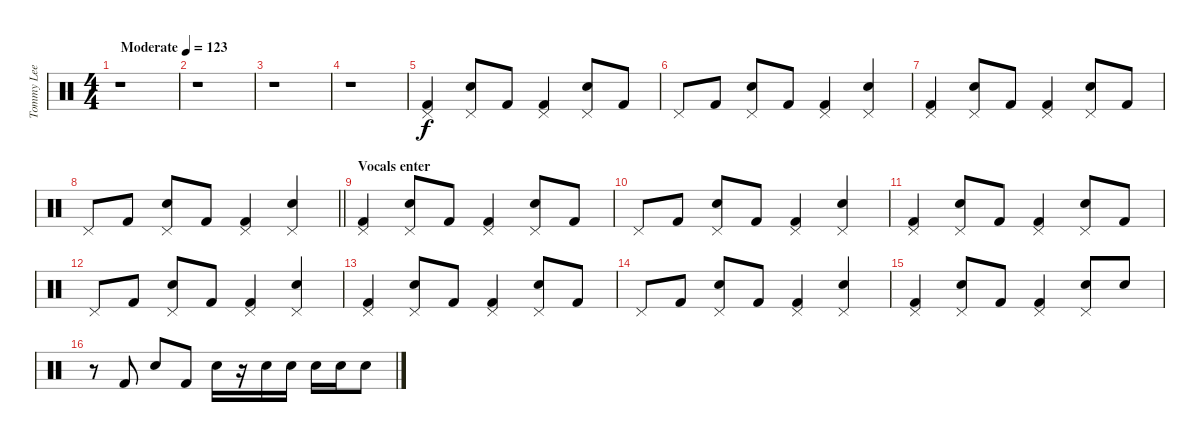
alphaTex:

\track ("Tommy Lee" "Tommy Lee") {instrument percussion}
\staff {score}
\articulation defaults
\ts (4 4)
\tempo (123 "Moderate")
\clef neutral
\ks c
r.1{dy f} |
r.1 |
r.1 |
r.1 |
("Pedal Hi-Hat (hit)" "Kick (hit) 2").4 ("Pedal Hi-Hat (hit)" "Snare (hit) 2").8 "Kick (hit) 2".8 ("Pedal Hi-Hat (hit)" "Kick (hit) 2").4 ("Pedal Hi-Hat (hit)" "Snare (hit) 2").8 "Kick (hit) 2".8 |
"Pedal Hi-Hat (hit)".8 "Kick (hit) 2".8 ("Pedal Hi-Hat (hit)" "Snare (hit) 2").8 "Kick (hit) 2".8 ("Pedal Hi-Hat (hit)" "Kick (hit) 2").4 ("Pedal Hi-Hat (hit)" "Snare (hit) 2").4 |
("Pedal Hi-Hat (hit)" "Kick (hit) 2").4 ("Pedal Hi-Hat (hit)" "Snare (hit) 2").8 "Kick (hit) 2".8 ("Pedal Hi-Hat (hit)" "Kick (hit) 2").4 ("Pedal Hi-Hat (hit)" "Snare (hit) 2").8 "Kick (hit) 2".8 |
\barLineRight lightlight "Pedal Hi-Hat (hit)".8 "Kick (hit) 2".8
("Pedal Hi-Hat (hit)" "Snare (hit) 2").8 "Kick (hit) 2".8 ("Pedal Hi-Hat (hit)" "Kick (hit) 2").4 ("Pedal Hi-Hat (hit)" "Snare (hit) 2").4 |
\section ("" "Vocals enter")
("Pedal Hi-Hat (hit)" "Kick (hit) 2").4 ("Pedal Hi-Hat (hit)" "Snare (hit) 2").8 "Kick (hit) 2".8 ("Pedal Hi-Hat (hit)" "Kick (hit) 2").4 ("Pedal Hi-Hat (hit)" "Snare (hit) 2").8 "Kick (hit) 2".8 |
"Pedal Hi-Hat (hit)".8 "Kick (hit) 2".8 ("Pedal Hi-Hat (hit)" "Snare (hit) 2").8 "Kick (hit) 2".8 ("Pedal Hi-Hat (hit)" "Kick (hit) 2").4 ("Pedal Hi-Hat (hit)" "Snare (hit) 2").4 |
("Pedal Hi-Hat (hit)" "Kick (hit) 2").4 ("Pedal Hi-Hat (hit)" "Snare (hit) 2").8 "Kick (hit) 2".8 ("Pedal Hi-Hat (hit)" "Kick (hit) 2").4 ("Pedal Hi-Hat (hit)" "Snare (hit) 2").8 "Kick (hit) 2".8 |
"Pedal Hi-Hat (hit)".8 "Kick (hit) 2".8 ("Pedal Hi-Hat (hit)" "Snare (hit) 2").8 "Kick (hit) 2".8 ("Pedal Hi-Hat (hit)" "Kick (hit) 2").4 ("Pedal Hi-Hat (hit)" "Snare (hit) 2").4 |
("Pedal Hi-Hat (hit)" "Kick (hit) 2").4 ("Pedal Hi-Hat (hit)" "Snare (hit) 2").8 "Kick (hit) 2".8 ("Pedal Hi-Hat (hit)" "Kick (hit) 2").4 ("Pedal Hi-Hat (hit)" "Snare (hit) 2").8 "Kick (hit) 2".8 |
"Pedal Hi-Hat (hit)".8 "Kick (hit) 2".8 ("Pedal Hi-Hat (hit)" "Snare (hit) 2").8 "Kick (hit) 2".8 ("Pedal Hi-Hat (hit)" "Kick (hit) 2").4 ("Pedal Hi-Hat (hit)" "Snare (hit) 2").4 |
("Pedal Hi-Hat (hit)" "Kick (hit) 2").4 ("Pedal Hi-Hat (hit)" "Snare (hit) 2").8 "Kick (hit) 2".8 ("Pedal Hi-Hat (hit)" "Kick (hit) 2").4 ("Pedal Hi-Hat (hit)" "Snare (hit) 2").8 "Snare (hit) 2".8 |
r.8 "Kick (hit) 2".8 "Snare (hit) 2".8 "Kick (hit) 2".8 "Snare (hit) 2".16 r.16 "Snare (hit) 2".16 "Snare (hit) 2".16 "Snare (hit) 2".16 "Snare (hit) 2".16 "Snare (hit) 2".8
